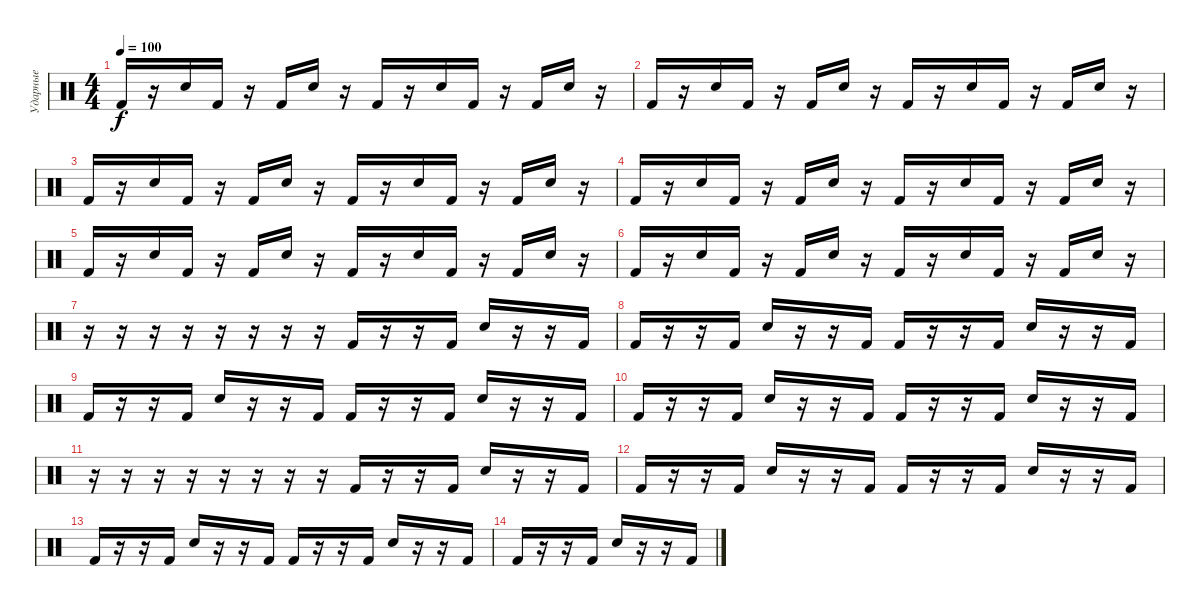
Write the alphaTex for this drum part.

\track ("Ударные" "Ударные") {instrument percussion}
\staff {score}
\articulation defaults
\ts (4 4)
\tempo 100
\clef neutral
\ks c "Kick (hit) 2".16{dy f}
r.16 "Electric Snare (hit)".16 "Kick (hit) 2".16 r.16 "Kick (hit) 2".16 "Electric Snare (hit)".16 r.16 "Kick (hit) 2".16 r.16 "Electric Snare (hit)".16 "Kick (hit) 2".16 r.16 "Kick (hit) 2".16 "Electric Snare (hit)".16 r.16 |
"Kick (hit) 2".16 r.16 "Electric Snare (hit)".16 "Kick (hit) 2".16 r.16 "Kick (hit) 2".16 "Electric Snare (hit)".16 r.16 "Kick (hit) 2".16 r.16 "Electric Snare (hit)".16 "Kick (hit) 2".16 r.16 "Kick (hit) 2".16 "Electric Snare (hit)".16 r.16 |
"Kick (hit) 2".16 r.16 "Electric Snare (hit)".16 "Kick (hit) 2".16 r.16 "Kick (hit) 2".16 "Electric Snare (hit)".16 r.16 "Kick (hit) 2".16 r.16 "Electric Snare (hit)".16 "Kick (hit) 2".16 r.16 "Kick (hit) 2".16 "Electric Snare (hit)".16 r.16 |
"Kick (hit) 2".16 r.16 "Electric Snare (hit)".16 "Kick (hit) 2".16 r.16 "Kick (hit) 2".16 "Electric Snare (hit)".16 r.16 "Kick (hit) 2".16 r.16 "Electric Snare (hit)".16 "Kick (hit) 2".16 r.16 "Kick (hit) 2".16 "Electric Snare (hit)".16 r.16 |
"Kick (hit) 2".16 r.16 "Electric Snare (hit)".16 "Kick (hit) 2".16 r.16 "Kick (hit) 2".16 "Electric Snare (hit)".16 r.16 "Kick (hit) 2".16 r.16 "Electric Snare (hit)".16 "Kick (hit) 2".16 r.16 "Kick (hit) 2".16 "Electric Snare (hit)".16 r.16 |
"Kick (hit) 2".16 r.16 "Electric Snare (hit)".16 "Kick (hit) 2".16 r.16 "Kick (hit) 2".16 "Electric Snare (hit)".16 r.16 "Kick (hit) 2".16 r.16 "Electric Snare (hit)".16 "Kick (hit) 2".16 r.16 "Kick (hit) 2".16 "Electric Snare (hit)".16 r.16 |
r.16 r.16 r.16 r.16 r.16 r.16 r.16 r.16 "Kick (hit) 2".16 r.16 r.16 "Kick (hit) 2".16 "Electric Snare (hit)".16 r.16 r.16 "Kick (hit) 2".16 |
"Kick (hit) 2".16 r.16 r.16 "Kick (hit) 2".16 "Electric Snare (hit)".16 r.16 r.16 "Kick (hit) 2".16 "Kick (hit) 2".16 r.16 r.16 "Kick (hit) 2".16 "Electric Snare (hit)".16 r.16 r.16 "Kick (hit) 2".16 |
"Kick (hit) 2".16 r.16 r.16 "Kick (hit) 2".16 "Electric Snare (hit)".16 r.16 r.16 "Kick (hit) 2".16 "Kick (hit) 2".16 r.16 r.16 "Kick (hit) 2".16 "Electric Snare (hit)".16 r.16 r.16 "Kick (hit) 2".16 |
"Kick (hit) 2".16 r.16 r.16 "Kick (hit) 2".16 "Electric Snare (hit)".16 r.16 r.16 "Kick (hit) 2".16 "Kick (hit) 2".16 r.16 r.16 "Kick (hit) 2".16 "Electric Snare (hit)".16 r.16 r.16 "Kick (hit) 2".16 |
r.16 r.16 r.16 r.16 r.16 r.16 r.16 r.16 "Kick (hit) 2".16 r.16 r.16 "Kick (hit) 2".16 "Electric Snare (hit)".16 r.16 r.16 "Kick (hit) 2".16 |
"Kick (hit) 2".16 r.16 r.16 "Kick (hit) 2".16 "Electric Snare (hit)".16 r.16 r.16 "Kick (hit) 2".16 "Kick (hit) 2".16 r.16 r.16 "Kick (hit) 2".16 "Electric Snare (hit)".16 r.16 r.16 "Kick (hit) 2".16 |
"Kick (hit) 2".16 r.16 r.16 "Kick (hit) 2".16 "Electric Snare (hit)".16 r.16 r.16 "Kick (hit) 2".16 "Kick (hit) 2".16 r.16 r.16 "Kick (hit) 2".16 "Electric Snare (hit)".16 r.16 r.16 "Kick (hit) 2".16 |
"Kick (hit) 2".16 r.16 r.16 "Kick (hit) 2".16 "Electric Snare (hit)".16 r.16 r.16 "Kick (hit) 2".16
